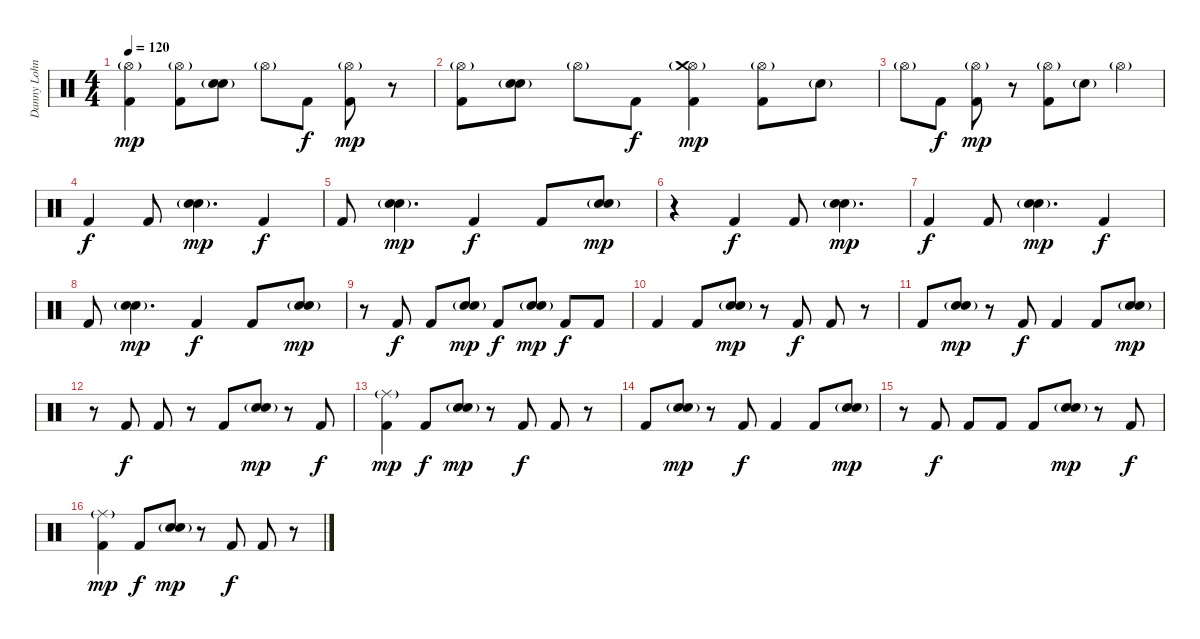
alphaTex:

\track ("Danny Lohner" "Danny Lohn") {instrument percussion}
\staff {score}
\articulation defaults
\ts (4 4)
\tempo 120
\clef neutral
\ks c
("Hi-Hat (open)"{g} "Kick (hit) 2").4{dy mp} ("Hi-Hat (open)"{g} "Kick (hit) 2").8 ("Hand Clap (hit)"{g} "Electric Snare (hit)"{g}).8 "Hi-Hat (open)"{g}.8 "Kick (hit) 2".8{dy f} ("Hi-Hat (open)"{g} "Kick (hit) 2").8{dy mp} r.8 |
("Hi-Hat (open)"{g} "Kick (hit) 2").8 ("Hand Clap (hit)"{g} "Electric Snare (hit)"{g}).8 "Hi-Hat (open)"{g}.8 "Kick (hit) 2".8{dy f} ("Hi-Hat (open)"{g} "Crash medium (hit)"{g} "Kick (hit) 2").4{dy mp} ("Hi-Hat (open)"{g} "Kick (hit) 2").8 "Electric Snare (hit)"{g}.8 |
"Hi-Hat (open)"{g}.8 "Kick (hit) 2".8{dy f} ("Hi-Hat (open)"{g} "Kick (hit) 2").8{dy mp} r.8 ("Hi-Hat (open)"{g} "Kick (hit) 2").8 "Electric Snare (hit)"{g}.8 "Hi-Hat (open)"{g}.4 |
"Kick (hit) 2".4{dy f} "Kick (hit) 2".8 ("Hand Clap (hit)"{g} "Electric Snare (hit)"{g}).4{d dy mp} "Kick (hit) 2".4{dy f} |
"Kick (hit) 2".8 ("Hand Clap (hit)"{g} "Electric Snare (hit)"{g}).4{d dy mp} "Kick (hit) 2".4{dy f} "Kick (hit) 2".8 ("Hand Clap (hit)"{g} "Electric Snare (hit)"{g}).8{dy mp} |
r.4 "Kick (hit) 2".4{dy f} "Kick (hit) 2".8 ("Hand Clap (hit)"{g} "Electric Snare (hit)"{g}).4{d dy mp} |
"Kick (hit) 2".4{dy f} "Kick (hit) 2".8 ("Hand Clap (hit)"{g} "Electric Snare (hit)"{g}).4{d dy mp} "Kick (hit) 2".4{dy f} |
"Kick (hit) 2".8 ("Hand Clap (hit)"{g} "Electric Snare (hit)"{g}).4{d dy mp} "Kick (hit) 2".4{dy f} "Kick (hit) 2".8 ("Hand Clap (hit)"{g} "Electric Snare (hit)"{g}).8{dy mp} |
r.8 "Kick (hit) 2".8{dy f} "Kick (hit) 2".8 ("Hand Clap (hit)"{g} "Electric Snare (hit)"{g}).8{dy mp} "Kick (hit) 2".8{dy f} ("Hand Clap (hit)"{g} "Electric Snare (hit)"{g}).8{dy mp} "Kick (hit) 2".8{dy f} "Kick (hit) 2".8 |
"Kick (hit) 2".4 "Kick (hit) 2".8 ("Hand Clap (hit)"{g} "Electric Snare (hit)"{g}).8{dy mp} r.8 "Kick (hit) 2".8{dy f} "Kick (hit) 2".8 r.8 |
"Kick (hit) 2".8 ("Hand Clap (hit)"{g} "Electric Snare (hit)"{g}).8{dy mp} r.8 "Kick (hit) 2".8{dy f} "Kick (hit) 2".4 "Kick (hit) 2".8 ("Hand Clap (hit)"{g} "Electric Snare (hit)"{g}).8{dy mp} |
r.8 "Kick (hit) 2".8{dy f} "Kick (hit) 2".8 r.8 "Kick (hit) 2".8 ("Hand Clap (hit)"{g} "Electric Snare (hit)"{g}).8{dy mp} r.8 "Kick (hit) 2".8{dy f} |
("Ride (middle)"{g} "Kick (hit) 2").4{dy mp} "Kick (hit) 2".8{dy f} ("Hand Clap (hit)"{g} "Electric Snare (hit)"{g}).8{dy mp} r.8 "Kick (hit) 2".8{dy f} "Kick (hit) 2".8 r.8 |
"Kick (hit) 2".8 ("Hand Clap (hit)"{g} "Electric Snare (hit)"{g}).8{dy mp} r.8 "Kick (hit) 2".8{dy f} "Kick (hit) 2".4 "Kick (hit) 2".8 ("Hand Clap (hit)"{g} "Electric Snare (hit)"{g}).8{dy mp} |
r.8 "Kick (hit) 2".8{dy f} "Kick (hit) 2".8 "Kick (hit) 2".8 "Kick (hit) 2".8 ("Hand Clap (hit)"{g} "Electric Snare (hit)"{g}).8{dy mp} r.8 "Kick (hit) 2".8{dy f} |
("Ride (middle)"{g} "Kick (hit) 2").4{dy mp} "Kick (hit) 2".8{dy f} ("Hand Clap (hit)"{g} "Electric Snare (hit)"{g}).8{dy mp} r.8 "Kick (hit) 2".8{dy f} "Kick (hit) 2".8 r.8
